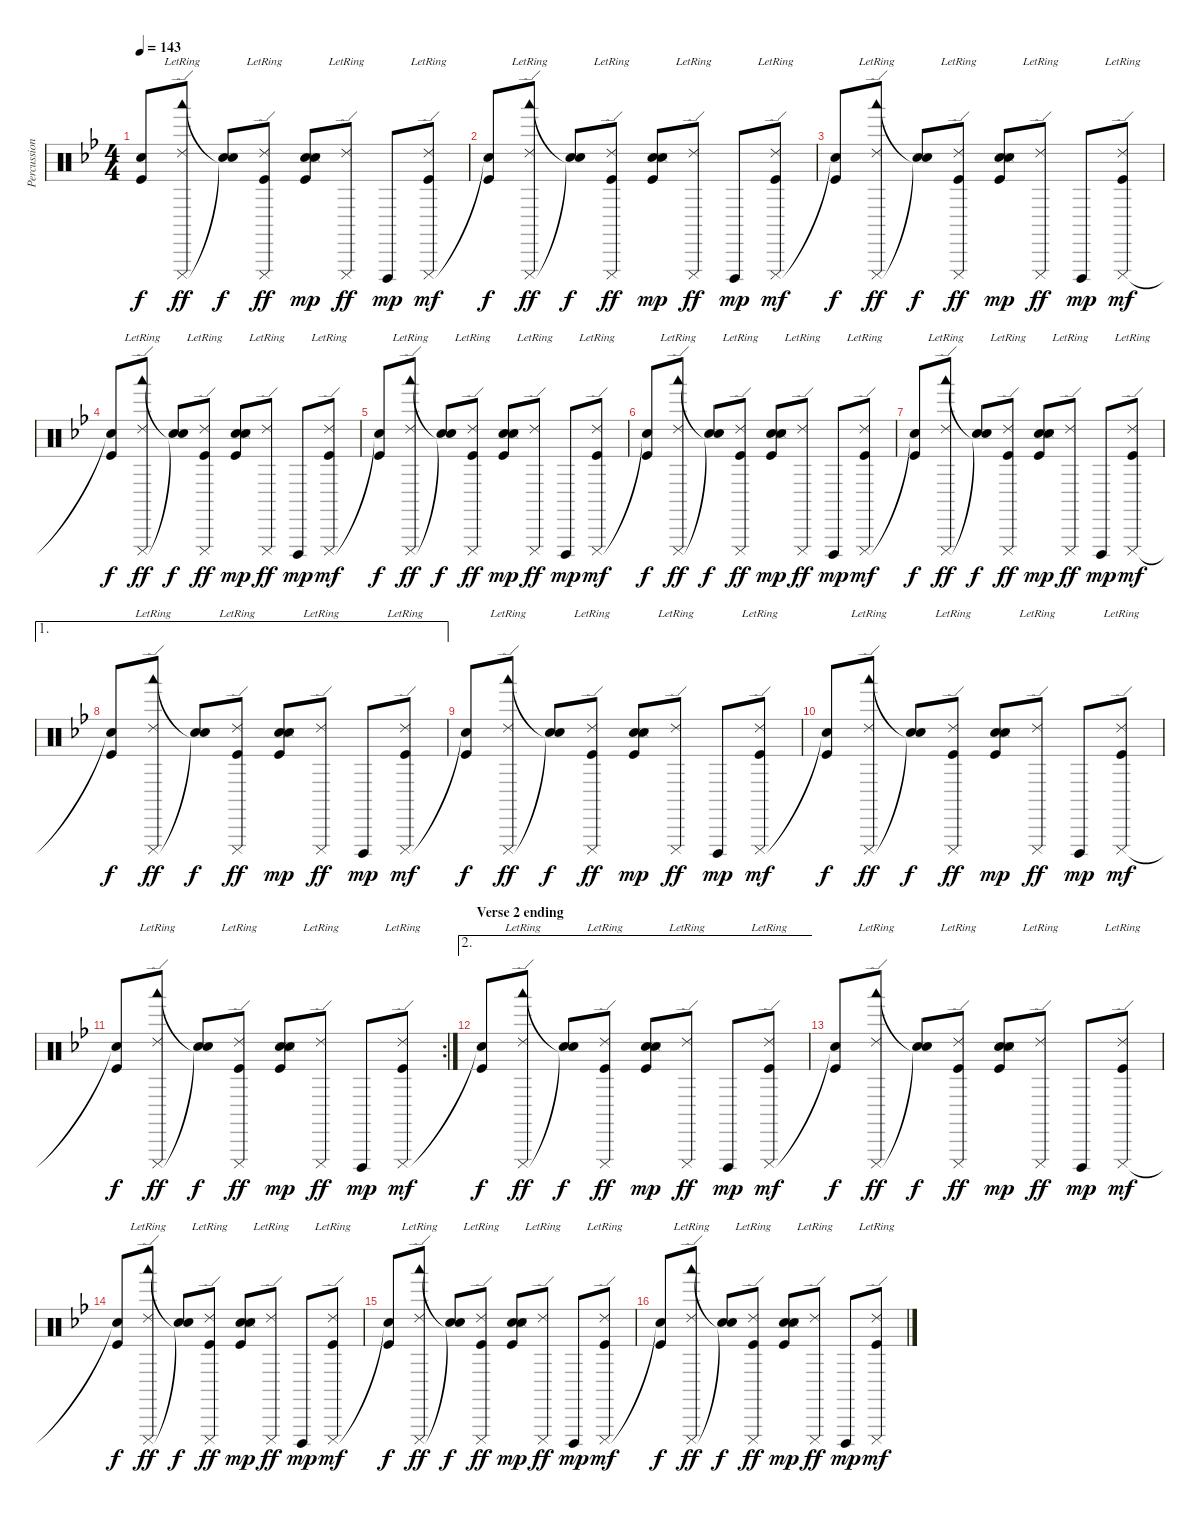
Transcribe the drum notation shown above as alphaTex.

\track ("Percussion" "Percussion") {instrument percussion}
\staff {score}
\articulation defaults
\ts (4 4)
\tempo 143
\clef neutral
\ks gminor
("Snare (hit)"{t} "Kick (hit)").8{dy f} ("Cuica (mute)" "Woodblock low (hit)" "Ride (edge) 2"{lr}).8{dy ff} ("Snare (hit)"{t} "Snare (hit)"{t}).8{dy f} ("Cuica (mute)" "Ride (edge) 2"{lr} "Kick (hit)").8{dy ff} ("Snare (hit) 2" "Snare (side stick) 3" "Snare (hit) 2" "Kick (hit)").8{dy mp} ("Cuica (mute)" "Ride (edge) 2"{lr}).8{dy ff} "Cuica (open)".8{dy mp} ("Cuica (mute)" "Ride (edge) 2"{lr} "Kick (hit)").8{dy mf} |
("Snare (hit)"{t} "Kick (hit)").8{dy f} ("Cuica (mute)" "Woodblock low (hit)" "Ride (edge) 2"{lr}).8{dy ff} ("Snare (hit)"{t} "Snare (hit)"{t}).8{dy f} ("Cuica (mute)" "Ride (edge) 2"{lr} "Kick (hit)").8{dy ff} ("Snare (hit) 2" "Snare (side stick) 3" "Snare (hit) 2" "Kick (hit)").8{dy mp} ("Cuica (mute)" "Ride (edge) 2"{lr}).8{dy ff} "Cuica (open)".8{dy mp} ("Cuica (mute)" "Ride (edge) 2"{lr} "Kick (hit)").8{dy mf} |
("Snare (hit)"{t} "Kick (hit)").8{dy f} ("Cuica (mute)" "Woodblock low (hit)" "Ride (edge) 2"{lr}).8{dy ff} ("Snare (hit)"{t} "Snare (hit)"{t}).8{dy f} ("Cuica (mute)" "Ride (edge) 2"{lr} "Kick (hit)").8{dy ff} ("Snare (hit) 2" "Snare (side stick) 3" "Snare (hit) 2" "Kick (hit)").8{dy mp} ("Cuica (mute)" "Ride (edge) 2"{lr}).8{dy ff} "Cuica (open)".8{dy mp} ("Cuica (mute)" "Ride (edge) 2"{lr} "Kick (hit)").8{dy mf} |
("Snare (hit)"{t} "Kick (hit)").8{dy f} ("Cuica (mute)" "Woodblock low (hit)" "Ride (edge) 2"{lr}).8{dy ff} ("Snare (hit)"{t} "Snare (hit)"{t}).8{dy f} ("Cuica (mute)" "Ride (edge) 2"{lr} "Kick (hit)").8{dy ff} ("Snare (hit) 2" "Snare (side stick) 3" "Snare (hit) 2" "Kick (hit)").8{dy mp} ("Cuica (mute)" "Ride (edge) 2"{lr}).8{dy ff} "Cuica (open)".8{dy mp} ("Cuica (mute)" "Ride (edge) 2"{lr} "Kick (hit)").8{dy mf} |
("Snare (hit)"{t} "Kick (hit)").8{dy f} ("Cuica (mute)" "Woodblock low (hit)" "Ride (edge) 2"{lr}).8{dy ff} ("Snare (hit)"{t} "Snare (hit)"{t}).8{dy f} ("Cuica (mute)" "Ride (edge) 2"{lr} "Kick (hit)").8{dy ff} ("Snare (hit) 2" "Snare (side stick) 3" "Snare (hit) 2" "Kick (hit)").8{dy mp} ("Cuica (mute)" "Ride (edge) 2"{lr}).8{dy ff} "Cuica (open)".8{dy mp} ("Cuica (mute)" "Ride (edge) 2"{lr} "Kick (hit)").8{dy mf} |
("Snare (hit)"{t} "Kick (hit)").8{dy f} ("Cuica (mute)" "Woodblock low (hit)" "Ride (edge) 2"{lr}).8{dy ff} ("Snare (hit)"{t} "Snare (hit)"{t}).8{dy f} ("Cuica (mute)" "Ride (edge) 2"{lr} "Kick (hit)").8{dy ff} ("Snare (hit) 2" "Snare (side stick) 3" "Snare (hit) 2" "Kick (hit)").8{dy mp} ("Cuica (mute)" "Ride (edge) 2"{lr}).8{dy ff} "Cuica (open)".8{dy mp} ("Cuica (mute)" "Ride (edge) 2"{lr} "Kick (hit)").8{dy mf} |
("Snare (hit)"{t} "Kick (hit)").8{dy f} ("Cuica (mute)" "Woodblock low (hit)" "Ride (edge) 2"{lr}).8{dy ff} ("Snare (hit)"{t} "Snare (hit)"{t}).8{dy f} ("Cuica (mute)" "Ride (edge) 2"{lr} "Kick (hit)").8{dy ff} ("Snare (hit) 2" "Snare (side stick) 3" "Snare (hit) 2" "Kick (hit)").8{dy mp} ("Cuica (mute)" "Ride (edge) 2"{lr}).8{dy ff} "Cuica (open)".8{dy mp} ("Cuica (mute)" "Ride (edge) 2"{lr} "Kick (hit)").8{dy mf} |
\ae 1
("Snare (hit)"{t} "Kick (hit)").8{dy f} ("Cuica (mute)" "Woodblock low (hit)" "Ride (edge) 2"{lr}).8{dy ff} ("Snare (hit)"{t} "Snare (hit)"{t}).8{dy f} ("Cuica (mute)" "Ride (edge) 2"{lr} "Kick (hit)").8{dy ff} ("Snare (hit) 2" "Snare (side stick) 3" "Snare (hit) 2" "Kick (hit)").8{dy mp} ("Cuica (mute)" "Ride (edge) 2"{lr}).8{dy ff} "Cuica (open)".8{dy mp} ("Cuica (mute)" "Ride (edge) 2"{lr} "Kick (hit)").8{dy mf} |
("Snare (hit)"{t} "Kick (hit)").8{dy f} ("Cuica (mute)" "Woodblock low (hit)" "Ride (edge) 2"{lr}).8{dy ff} ("Snare (hit)"{t} "Snare (hit)"{t}).8{dy f} ("Cuica (mute)" "Ride (edge) 2"{lr} "Kick (hit)").8{dy ff} ("Snare (hit) 2" "Snare (side stick) 3" "Snare (hit) 2" "Kick (hit)").8{dy mp} ("Cuica (mute)" "Ride (edge) 2"{lr}).8{dy ff} "Cuica (open)".8{dy mp} ("Cuica (mute)" "Ride (edge) 2"{lr} "Kick (hit)").8{dy mf} |
("Snare (hit)"{t} "Kick (hit)").8{dy f} ("Cuica (mute)" "Woodblock low (hit)" "Ride (edge) 2"{lr}).8{dy ff} ("Snare (hit)"{t} "Snare (hit)"{t}).8{dy f} ("Cuica (mute)" "Ride (edge) 2"{lr} "Kick (hit)").8{dy ff} ("Snare (hit) 2" "Snare (side stick) 3" "Snare (hit) 2" "Kick (hit)").8{dy mp} ("Cuica (mute)" "Ride (edge) 2"{lr}).8{dy ff} "Cuica (open)".8{dy mp} ("Cuica (mute)" "Ride (edge) 2"{lr} "Kick (hit)").8{dy mf} |
\rc 2
("Snare (hit)"{t} "Kick (hit)").8{dy f} ("Cuica (mute)" "Woodblock low (hit)" "Ride (edge) 2"{lr}).8{dy ff} ("Snare (hit)"{t} "Snare (hit)"{t}).8{dy f} ("Cuica (mute)" "Ride (edge) 2"{lr} "Kick (hit)").8{dy ff} ("Snare (hit) 2" "Snare (side stick) 3" "Snare (hit) 2" "Kick (hit)").8{dy mp} ("Cuica (mute)" "Ride (edge) 2"{lr}).8{dy ff} "Cuica (open)".8{dy mp} ("Cuica (mute)" "Ride (edge) 2"{lr} "Kick (hit)").8{dy mf} |
\ae 2
\section ("" "Verse 2 ending")
("Snare (hit)"{t} "Kick (hit)").8{dy f} ("Cuica (mute)" "Woodblock low (hit)" "Ride (edge) 2"{lr}).8{dy ff} ("Snare (hit)"{t} "Snare (hit)"{t}).8{dy f} ("Cuica (mute)" "Ride (edge) 2"{lr} "Kick (hit)").8{dy ff} ("Snare (hit) 2" "Snare (side stick) 3" "Snare (hit) 2" "Kick (hit)").8{dy mp} ("Cuica (mute)" "Ride (edge) 2"{lr}).8{dy ff} "Cuica (open)".8{dy mp} ("Cuica (mute)" "Ride (edge) 2"{lr} "Kick (hit)").8{dy mf} |
("Snare (hit)"{t} "Kick (hit)").8{dy f} ("Cuica (mute)" "Woodblock low (hit)" "Ride (edge) 2"{lr}).8{dy ff} ("Snare (hit)"{t} "Snare (hit)"{t}).8{dy f} ("Cuica (mute)" "Ride (edge) 2"{lr} "Kick (hit)").8{dy ff} ("Snare (hit) 2" "Snare (side stick) 3" "Snare (hit) 2" "Kick (hit)").8{dy mp} ("Cuica (mute)" "Ride (edge) 2"{lr}).8{dy ff} "Cuica (open)".8{dy mp} ("Cuica (mute)" "Ride (edge) 2"{lr} "Kick (hit)").8{dy mf} |
("Snare (hit)"{t} "Kick (hit)").8{dy f} ("Cuica (mute)" "Woodblock low (hit)" "Ride (edge) 2"{lr}).8{dy ff} ("Snare (hit)"{t} "Snare (hit)"{t}).8{dy f} ("Cuica (mute)" "Ride (edge) 2"{lr} "Kick (hit)").8{dy ff} ("Snare (hit) 2" "Snare (side stick) 3" "Snare (hit) 2" "Kick (hit)").8{dy mp} ("Cuica (mute)" "Ride (edge) 2"{lr}).8{dy ff} "Cuica (open)".8{dy mp} ("Cuica (mute)" "Ride (edge) 2"{lr} "Kick (hit)").8{dy mf} |
("Snare (hit)"{t} "Kick (hit)").8{dy f} ("Cuica (mute)" "Woodblock low (hit)" "Ride (edge) 2"{lr}).8{dy ff} ("Snare (hit)"{t} "Snare (hit)"{t}).8{dy f} ("Cuica (mute)" "Ride (edge) 2"{lr} "Kick (hit)").8{dy ff} ("Snare (hit) 2" "Snare (side stick) 3" "Snare (hit) 2" "Kick (hit)").8{dy mp} ("Cuica (mute)" "Ride (edge) 2"{lr}).8{dy ff} "Cuica (open)".8{dy mp} ("Cuica (mute)" "Ride (edge) 2"{lr} "Kick (hit)").8{dy mf} |
("Snare (hit)"{t} "Kick (hit)").8{dy f} ("Cuica (mute)" "Woodblock low (hit)" "Ride (edge) 2"{lr}).8{dy ff} ("Snare (hit)"{t} "Snare (hit)"{t}).8{dy f} ("Cuica (mute)" "Ride (edge) 2"{lr} "Kick (hit)").8{dy ff} ("Snare (hit) 2" "Snare (side stick) 3" "Snare (hit) 2" "Kick (hit)").8{dy mp} ("Cuica (mute)" "Ride (edge) 2"{lr}).8{dy ff} "Cuica (open)".8{dy mp} ("Cuica (mute)" "Ride (edge) 2"{lr} "Kick (hit)").8{dy mf}
